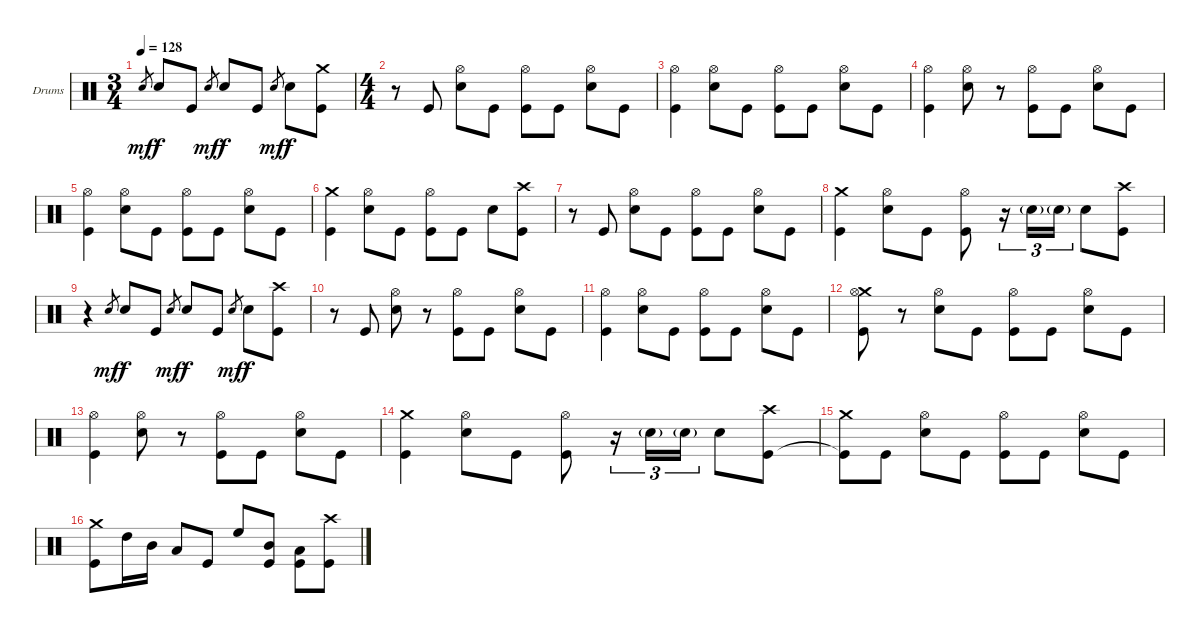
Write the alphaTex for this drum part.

\defaultSystemsLayout 4
\bracketExtendMode groupsimilarinstruments
\firstSystemTrackNameOrientation horizontal
\otherSystemsTrackNameOrientation horizontal
\track ("Drumkit" "Drums") {instrument percussion}
\staff {score}
\articulation defaults
\ts (3 4)
\tempo 128
\clef neutral
\ks c "Snare (hit) 2".8{gr dy mf} "Snare (hit) 2".8{dy f} "Kick (hit)".8 "Snare (hit) 2".8{gr dy mf} "Snare (hit) 2".8{dy f} "Kick (hit)".8 "Snare (hit) 2".8{gr dy mf} "Snare (hit) 2".8{dy f}
("Crash medium (hit)" "Kick (hit)").8 |
\ts (4 4)
r.8 "Kick (hit)".8 ("Hi-Hat (open)" "Snare (hit) 2").8 "Kick (hit)".8 ("Hi-Hat (open)" "Kick (hit)").8 "Kick (hit)".8 ("Hi-Hat (open)" "Snare (hit) 2").8 "Kick (hit)".8 |
("Hi-Hat (open)" "Kick (hit)").4 ("Hi-Hat (open)" "Snare (hit) 2").8 "Kick (hit)".8 ("Hi-Hat (open)" "Kick (hit)").8 "Kick (hit)".8 ("Hi-Hat (open)" "Snare (hit) 2").8 "Kick (hit)".8 |
("Hi-Hat (open)" "Kick (hit)").4 ("Hi-Hat (open)" "Snare (hit) 2").8 r.8 ("Hi-Hat (open)" "Kick (hit)").8 "Kick (hit)".8 ("Hi-Hat (open)" "Snare (hit) 2").8 "Kick (hit)".8 |
("Hi-Hat (open)" "Kick (hit)").4 ("Hi-Hat (open)" "Snare (hit) 2").8 "Kick (hit)".8 ("Hi-Hat (open)" "Kick (hit)").8 "Kick (hit)".8 ("Hi-Hat (open)" "Snare (hit) 2").8 "Kick (hit)".8 |
("Crash medium (hit)" "Kick (hit)").4 ("Hi-Hat (open)" "Snare (hit) 2").8 "Kick (hit)".8 ("Hi-Hat (open)" "Kick (hit)").8 "Kick (hit)".8 "Snare (hit) 2".8 ("Crash high (hit)" "Kick (hit)").8 |
r.8 "Kick (hit)".8 ("Hi-Hat (open)" "Snare (hit) 2").8 "Kick (hit)".8 ("Hi-Hat (open)" "Kick (hit)").8 "Kick (hit)".8 ("Hi-Hat (open)" "Snare (hit) 2").8 "Kick (hit)".8 |
("Crash medium (hit)" "Kick (hit)").4 ("Hi-Hat (open)" "Snare (hit) 2").8 "Kick (hit)".8 ("Hi-Hat (open)" "Kick (hit)").8 r.16{tu (3 2)} "Snare (hit) 2"{g}.16{tu (3 2)} "Snare (hit) 2"{g}.16{tu (3 2)} "Snare (hit) 2".8 ("Crash high (hit)" "Kick (hit)").8 |
r.4 "Snare (hit) 2".8{gr dy mf} "Snare (hit) 2".8{dy f} "Kick (hit)".8 "Snare (hit) 2".8{gr dy mf} "Snare (hit) 2".8{dy f} "Kick (hit)".8 "Snare (hit) 2".8{gr dy mf} "Snare (hit) 2".8{dy f} ("Crash high (hit)" "Kick (hit)").8 |
r.8 "Kick (hit)".8 ("Hi-Hat (open)" "Snare (hit) 2").8 r.8 ("Hi-Hat (open)" "Kick (hit)").8 "Kick (hit)".8 ("Hi-Hat (open)" "Snare (hit) 2").8 "Kick (hit)".8 |
("Hi-Hat (open)" "Kick (hit)").4 ("Hi-Hat (open)" "Snare (hit) 2").8 "Kick (hit)".8 ("Hi-Hat (open)" "Kick (hit)").8 "Kick (hit)".8 ("Hi-Hat (open)" "Snare (hit) 2").8 "Kick (hit)".8 |
("Crash medium (hit)" "Hi-Hat (open)" "Kick (hit)").8 r.8 ("Hi-Hat (open)" "Snare (hit) 2").8 "Kick (hit)".8 ("Hi-Hat (open)" "Kick (hit)").8 "Kick (hit)".8 ("Hi-Hat (open)" "Snare (hit) 2").8 "Kick (hit)".8 |
("Hi-Hat (open)" "Kick (hit)").4 ("Hi-Hat (open)" "Snare (hit) 2").8 r.8 ("Hi-Hat (open)" "Kick (hit)").8 "Kick (hit)".8 ("Hi-Hat (open)" "Snare (hit) 2").8 "Kick (hit)".8 |
("Crash medium (hit)" "Kick (hit)").4 ("Hi-Hat (open)" "Snare (hit) 2").8 "Kick (hit)".8 ("Hi-Hat (open)" "Kick (hit)").8 r.16{tu (3 2)} "Snare (hit) 2"{g}.16{tu (3 2)} "Snare (hit) 2"{g}.16{tu (3 2)} "Snare (hit) 2".8 ("Crash high (hit)" "Kick (hit)").8 |
("Crash medium (hit)" "Kick (hit)"{t}).8 "Kick (hit)".8 ("Hi-Hat (open)" "Snare (hit) 2").8 "Kick (hit)".8 ("Hi-Hat (open)" "Kick (hit)").8 "Kick (hit)".8 ("Hi-Hat (open)" "Snare (hit) 2").8 "Kick (hit)".8 |
("Crash medium (hit)" "Kick (hit)").8 "High Tom (hit)".16 "Mid Tom (hit)".16 "Low Tom (hit)".8 "Kick (hit)".8 "High Floor Tom (hit)".8 ("Mid Tom (hit)" "Kick (hit)").8 ("Low Tom (hit)" "Kick (hit)").8 ("Crash high (hit)" "Kick (hit)").8
